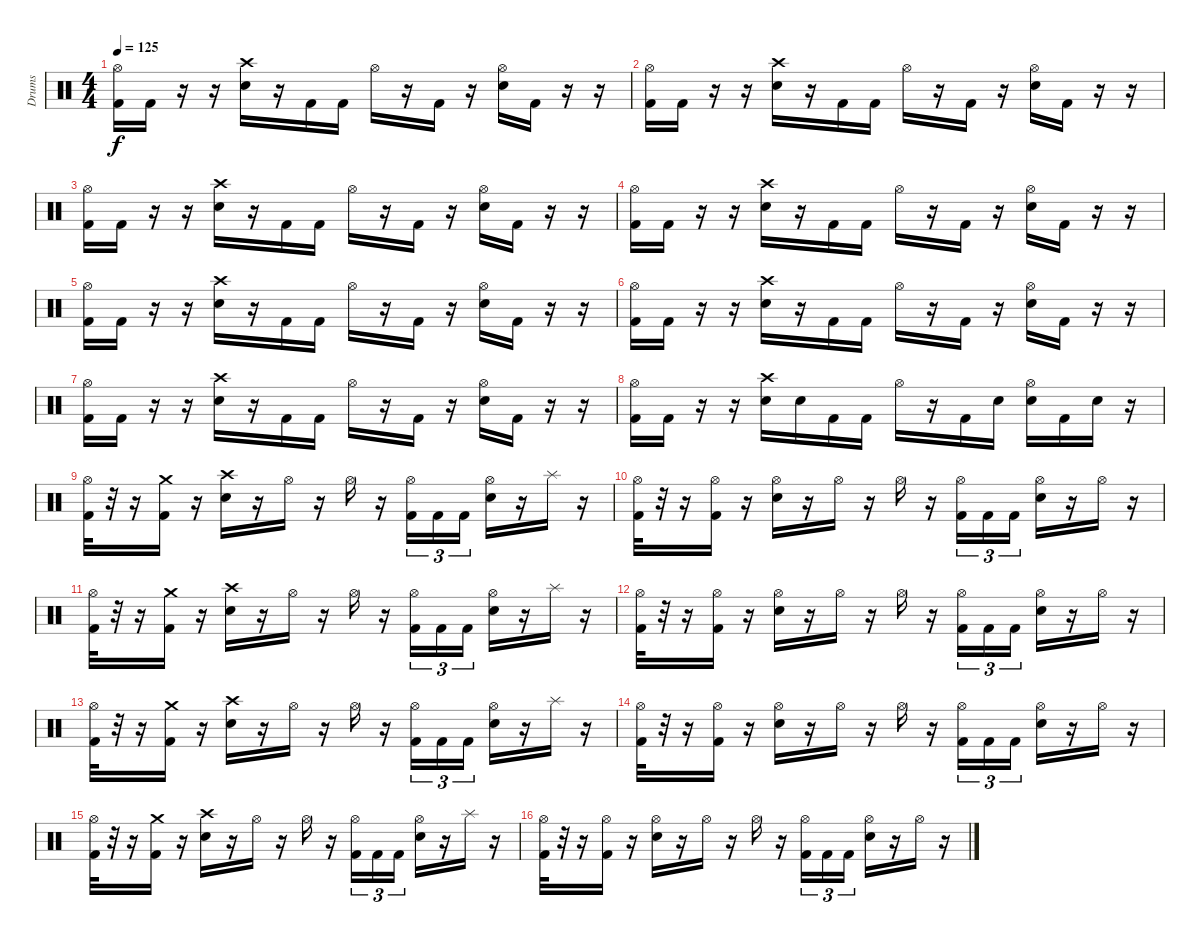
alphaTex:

\track ("Drums" "Drums") {instrument percussion}
\staff {score}
\articulation defaults
\ts (4 4)
\tempo 125
\clef neutral
\ks c
("Hi-Hat (open)" "Kick (hit) 2").16{dy f} "Kick (hit) 2".16 r.16 r.16 ("Crash high (hit)" "Snare (hit) 2").16 r.16 "Kick (hit) 2".16 "Kick (hit) 2".16 "Hi-Hat (open)".16 r.16 "Kick (hit) 2".16 r.16 ("Hi-Hat (open)" "Snare (hit) 2").16 "Kick (hit) 2".16 r.16 r.16 |
("Hi-Hat (open)" "Kick (hit) 2").16 "Kick (hit) 2".16 r.16 r.16 ("Crash high (hit)" "Snare (hit) 2").16 r.16 "Kick (hit) 2".16 "Kick (hit) 2".16 "Hi-Hat (open)".16 r.16 "Kick (hit) 2".16 r.16 ("Hi-Hat (open)" "Snare (hit) 2").16 "Kick (hit) 2".16 r.16 r.16 |
("Hi-Hat (open)" "Kick (hit) 2").16 "Kick (hit) 2".16 r.16 r.16 ("Crash high (hit)" "Snare (hit) 2").16 r.16 "Kick (hit) 2".16 "Kick (hit) 2".16 "Hi-Hat (open)".16 r.16 "Kick (hit) 2".16 r.16 ("Hi-Hat (open)" "Snare (hit) 2").16 "Kick (hit) 2".16 r.16 r.16 |
("Hi-Hat (open)" "Kick (hit) 2").16 "Kick (hit) 2".16 r.16 r.16 ("Crash high (hit)" "Snare (hit) 2").16 r.16 "Kick (hit) 2".16 "Kick (hit) 2".16 "Hi-Hat (open)".16 r.16 "Kick (hit) 2".16 r.16 ("Hi-Hat (open)" "Snare (hit) 2").16 "Kick (hit) 2".16 r.16 r.16 |
("Hi-Hat (open)" "Kick (hit) 2").16 "Kick (hit) 2".16 r.16 r.16 ("Crash high (hit)" "Snare (hit) 2").16 r.16 "Kick (hit) 2".16 "Kick (hit) 2".16 "Hi-Hat (open)".16 r.16 "Kick (hit) 2".16 r.16 ("Hi-Hat (open)" "Snare (hit) 2").16 "Kick (hit) 2".16 r.16 r.16 |
("Hi-Hat (open)" "Kick (hit) 2").16 "Kick (hit) 2".16 r.16 r.16 ("Crash high (hit)" "Snare (hit) 2").16 r.16 "Kick (hit) 2".16 "Kick (hit) 2".16 "Hi-Hat (open)".16 r.16 "Kick (hit) 2".16 r.16 ("Hi-Hat (open)" "Snare (hit) 2").16 "Kick (hit) 2".16 r.16 r.16 |
("Hi-Hat (open)" "Kick (hit) 2").16 "Kick (hit) 2".16 r.16 r.16 ("Crash high (hit)" "Snare (hit) 2").16 r.16 "Kick (hit) 2".16 "Kick (hit) 2".16 "Hi-Hat (open)".16 r.16 "Kick (hit) 2".16 r.16 ("Hi-Hat (open)" "Snare (hit) 2").16 "Kick (hit) 2".16 r.16 r.16 |
("Hi-Hat (open)" "Kick (hit) 2").16 "Kick (hit) 2".16 r.16 r.16 ("Crash high (hit)" "Snare (hit) 2").16 "Electric Snare (hit)".16 "Kick (hit) 2".16 "Kick (hit) 2".16 "Hi-Hat (open)".16 r.16 "Kick (hit) 2".16 "Electric Snare (hit)".16 ("Hi-Hat (open)" "Snare (hit) 2").16 "Kick (hit) 2".16 "Electric Snare (hit)".16 r.16 |
("Hi-Hat (open)" "Kick (hit) 2").32 r.32 r.16 ("Crash medium (hit)" "Kick (hit) 2").16 r.16 ("Crash high (hit)" "Snare (hit) 2").16 r.16 "Hi-Hat (open)".16 r.16 "Hi-Hat (open)".16 r.16 ("Hi-Hat (open)" "Kick (hit) 2").16{tu (3 2)} "Kick (hit) 2".16{tu (3 2)} "Kick (hit) 2".16{tu (3 2)} ("Hi-Hat (open)" "Snare (hit) 2").16 r.16 "Splash (hit)".16 r.16 |
("Hi-Hat (open)" "Kick (hit) 2").32 r.32 r.16 ("Hi-Hat (open)" "Kick (hit) 2").16 r.16 ("Hi-Hat (open)" "Snare (hit) 2").16 r.16 "Hi-Hat (open)".16 r.16 "Hi-Hat (open)".16 r.16 ("Hi-Hat (open)" "Kick (hit) 2").16{tu (3 2)} "Kick (hit) 2".16{tu (3 2)} "Kick (hit) 2".16{tu (3 2)} ("Hi-Hat (open)" "Snare (hit) 2").16 r.16 "Hi-Hat (open)".16 r.16 |
("Hi-Hat (open)" "Kick (hit) 2").32 r.32 r.16 ("Crash medium (hit)" "Kick (hit) 2").16 r.16 ("Crash high (hit)" "Snare (hit) 2").16 r.16 "Hi-Hat (open)".16 r.16 "Hi-Hat (open)".16 r.16 ("Hi-Hat (open)" "Kick (hit) 2").16{tu (3 2)} "Kick (hit) 2".16{tu (3 2)} "Kick (hit) 2".16{tu (3 2)} ("Hi-Hat (open)" "Snare (hit) 2").16 r.16 "Splash (hit)".16 r.16 |
("Hi-Hat (open)" "Kick (hit) 2").32 r.32 r.16 ("Hi-Hat (open)" "Kick (hit) 2").16 r.16 ("Hi-Hat (open)" "Snare (hit) 2").16 r.16 "Hi-Hat (open)".16 r.16 "Hi-Hat (open)".16 r.16 ("Hi-Hat (open)" "Kick (hit) 2").16{tu (3 2)} "Kick (hit) 2".16{tu (3 2)} "Kick (hit) 2".16{tu (3 2)} ("Hi-Hat (open)" "Snare (hit) 2").16 r.16 "Hi-Hat (open)".16 r.16 |
("Hi-Hat (open)" "Kick (hit) 2").32 r.32 r.16 ("Crash medium (hit)" "Kick (hit) 2").16 r.16 ("Crash high (hit)" "Snare (hit) 2").16 r.16 "Hi-Hat (open)".16 r.16 "Hi-Hat (open)".16 r.16 ("Hi-Hat (open)" "Kick (hit) 2").16{tu (3 2)} "Kick (hit) 2".16{tu (3 2)} "Kick (hit) 2".16{tu (3 2)} ("Hi-Hat (open)" "Snare (hit) 2").16 r.16 "Splash (hit)".16 r.16 |
("Hi-Hat (open)" "Kick (hit) 2").32 r.32 r.16 ("Hi-Hat (open)" "Kick (hit) 2").16 r.16 ("Hi-Hat (open)" "Snare (hit) 2").16 r.16 "Hi-Hat (open)".16 r.16 "Hi-Hat (open)".16 r.16 ("Hi-Hat (open)" "Kick (hit) 2").16{tu (3 2)} "Kick (hit) 2".16{tu (3 2)} "Kick (hit) 2".16{tu (3 2)} ("Hi-Hat (open)" "Snare (hit) 2").16 r.16 "Hi-Hat (open)".16 r.16 |
("Hi-Hat (open)" "Kick (hit) 2").32 r.32 r.16 ("Crash medium (hit)" "Kick (hit) 2").16 r.16 ("Crash high (hit)" "Snare (hit) 2").16 r.16 "Hi-Hat (open)".16 r.16 "Hi-Hat (open)".16 r.16 ("Hi-Hat (open)" "Kick (hit) 2").16{tu (3 2)} "Kick (hit) 2".16{tu (3 2)} "Kick (hit) 2".16{tu (3 2)} ("Hi-Hat (open)" "Snare (hit) 2").16 r.16 "Splash (hit)".16 r.16 |
("Hi-Hat (open)" "Kick (hit) 2").32 r.32 r.16 ("Hi-Hat (open)" "Kick (hit) 2").16 r.16 ("Hi-Hat (open)" "Snare (hit) 2").16 r.16 "Hi-Hat (open)".16 r.16 "Hi-Hat (open)".16 r.16 ("Hi-Hat (open)" "Kick (hit) 2").16{tu (3 2)} "Kick (hit) 2".16{tu (3 2)} "Kick (hit) 2".16{tu (3 2)} ("Hi-Hat (open)" "Snare (hit) 2").16 r.16 "Hi-Hat (open)".16 r.16
